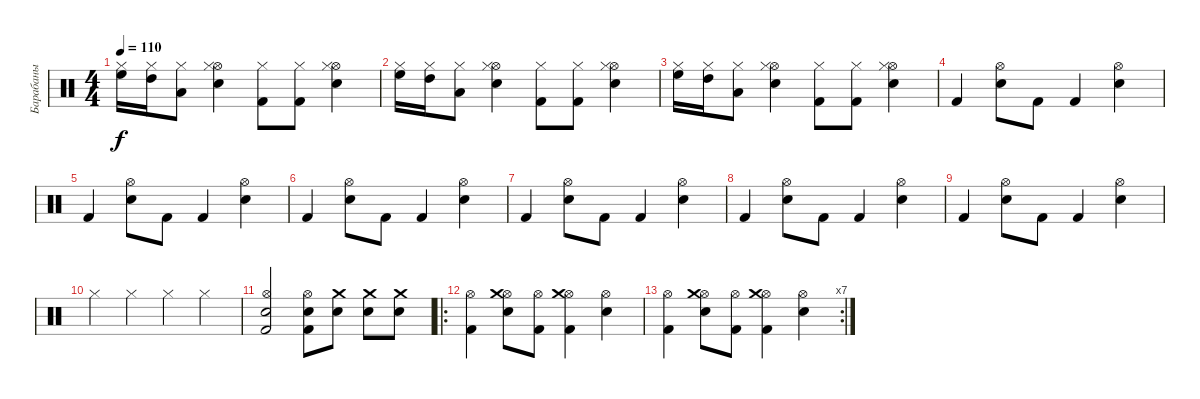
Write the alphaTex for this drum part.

\track ("Барабаны" "Барабаны") {instrument percussion}
\staff {score}
\articulation defaults
\ts (4 4)
\tempo 110
\clef neutral
\ks c
("Hi-Hat (closed)" "High Floor Tom (hit)").16{dy f} ("Hi-Hat (closed)" "High Tom (hit)").16 ("Hi-Hat (closed)" "Low Tom (hit)").8 ("Snare (hit) 2" "Hi-Hat (open)" "Hi-Hat (closed)").4 ("Kick (hit) 2" "Hi-Hat (closed)").8 ("Kick (hit) 2" "Hi-Hat (closed)").8 ("Snare (hit) 2" "Hi-Hat (open)" "Hi-Hat (closed)").4 |
("Hi-Hat (closed)" "High Floor Tom (hit)").16 ("Hi-Hat (closed)" "High Tom (hit)").16 ("Hi-Hat (closed)" "Low Tom (hit)").8 ("Snare (hit) 2" "Hi-Hat (open)" "Hi-Hat (closed)").4 ("Kick (hit) 2" "Hi-Hat (closed)").8 ("Kick (hit) 2" "Hi-Hat (closed)").8 ("Snare (hit) 2" "Hi-Hat (open)" "Hi-Hat (closed)").4 |
("Hi-Hat (closed)" "High Floor Tom (hit)").16 ("Hi-Hat (closed)" "High Tom (hit)").16 ("Hi-Hat (closed)" "Low Tom (hit)").8 ("Snare (hit) 2" "Hi-Hat (open)" "Hi-Hat (closed)").4 ("Kick (hit) 2" "Hi-Hat (closed)").8 ("Kick (hit) 2" "Hi-Hat (closed)").8 ("Snare (hit) 2" "Hi-Hat (open)" "Hi-Hat (closed)").4 |
"Kick (hit) 2".4 ("Snare (hit) 2" "Hi-Hat (open)").8 "Kick (hit) 2".8 "Kick (hit) 2".4 ("Snare (hit) 2" "Hi-Hat (open)").4 |
"Kick (hit) 2".4 ("Snare (hit) 2" "Hi-Hat (open)").8 "Kick (hit) 2".8 "Kick (hit) 2".4 ("Snare (hit) 2" "Hi-Hat (open)").4 |
"Kick (hit) 2".4 ("Snare (hit) 2" "Hi-Hat (open)").8 "Kick (hit) 2".8 "Kick (hit) 2".4 ("Snare (hit) 2" "Hi-Hat (open)").4 |
"Kick (hit) 2".4 ("Snare (hit) 2" "Hi-Hat (open)").8 "Kick (hit) 2".8 "Kick (hit) 2".4 ("Snare (hit) 2" "Hi-Hat (open)").4 |
"Kick (hit) 2".4 ("Snare (hit) 2" "Hi-Hat (open)").8 "Kick (hit) 2".8 "Kick (hit) 2".4 ("Snare (hit) 2" "Hi-Hat (open)").4 |
"Kick (hit) 2".4 ("Snare (hit) 2" "Hi-Hat (open)").8 "Kick (hit) 2".8 "Kick (hit) 2".4 ("Snare (hit) 2" "Hi-Hat (open)").4 |
"Hi-Hat (closed)".4 "Hi-Hat (closed)".4 "Hi-Hat (closed)".4 "Hi-Hat (closed)".4 |
("Kick (hit) 2" "Snare (hit) 2" "Hi-Hat (open)").2 ("Snare (hit) 2" "Kick (hit) 2" "Hi-Hat (open)").8 ("Snare (hit) 2" "Crash medium (hit)").8 ("Snare (hit) 2" "Crash medium (hit)").8 ("Snare (hit) 2" "Crash medium (hit)").8 |
\ro
("Kick (hit) 2" "Hi-Hat (open)").4 ("Snare (hit) 2" "Hi-Hat (open)" "Crash medium (hit)").8 ("Kick (hit) 2" "Hi-Hat (open)").8 ("Kick (hit) 2" "Hi-Hat (open)" "Crash medium (hit)").4 ("Snare (hit) 2" "Hi-Hat (open)").4 |
\rc 7
("Kick (hit) 2" "Hi-Hat (open)").4 ("Snare (hit) 2" "Hi-Hat (open)" "Crash medium (hit)").8 ("Kick (hit) 2" "Hi-Hat (open)").8 ("Kick (hit) 2" "Hi-Hat (open)" "Crash medium (hit)").4 ("Snare (hit) 2" "Hi-Hat (open)").4
